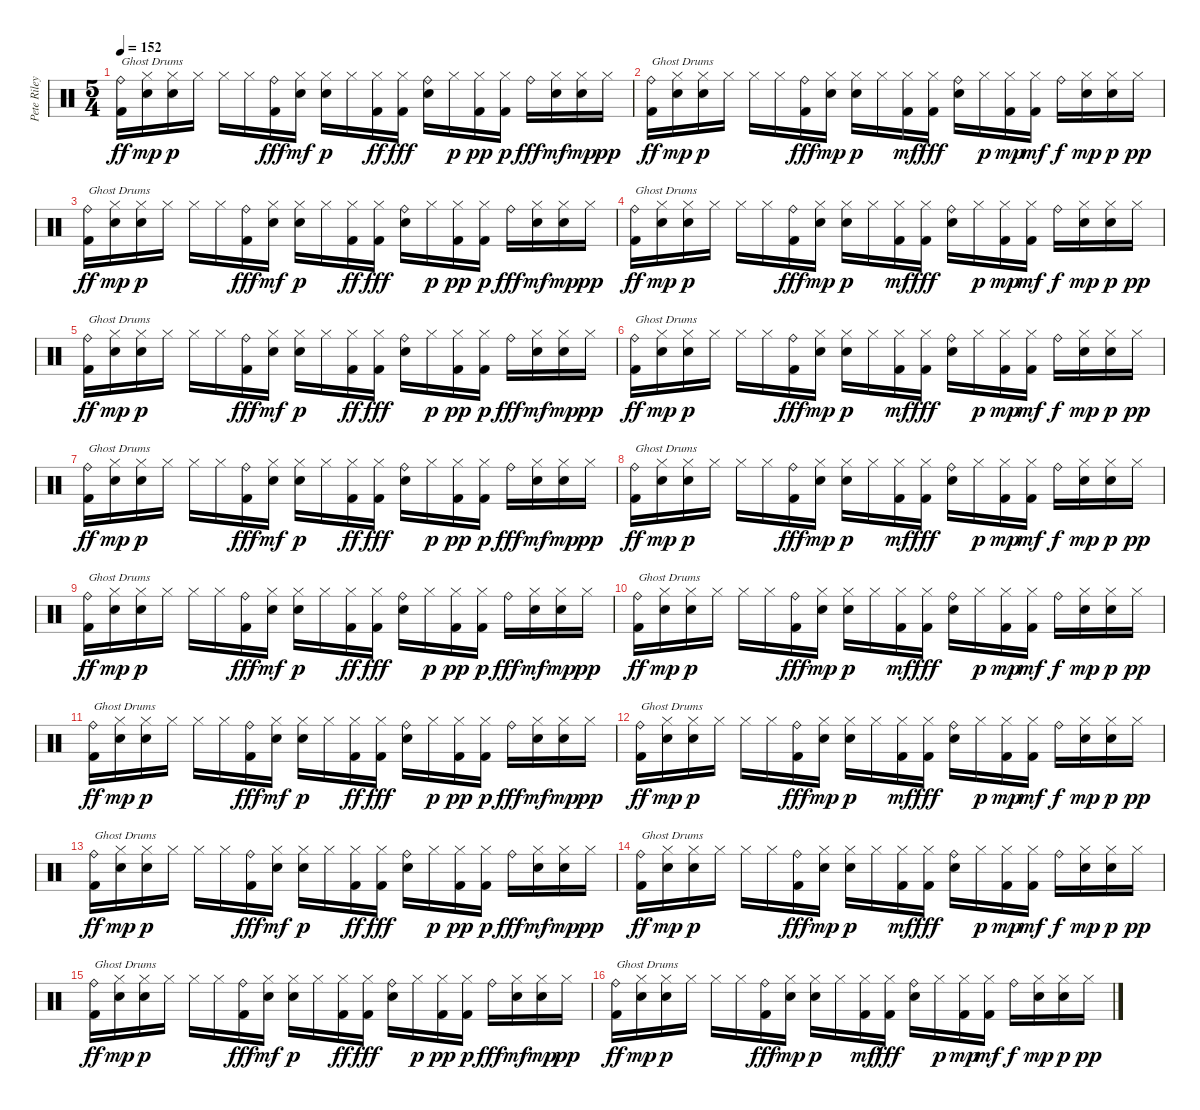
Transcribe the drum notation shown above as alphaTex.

\track ("Pete Riley" "Pete Riley") {instrument percussion}
\staff {score}
\articulation defaults
\ts (5 4)
\tempo 152
\clef neutral
\ks c
("Ride (bell)" "Kick (hit) 2").16{txt "Ghost Drums" dy ff} ("Hi-Hat (closed)" "Electric Snare (hit)").16{dy mp} ("Hi-Hat (closed)" "Electric Snare (hit)").16{dy p} "Hi-Hat (closed)".16 "Hi-Hat (closed)".16 "Hi-Hat (closed)".16 ("Ride (bell)" "Kick (hit) 2").16{dy fff} ("Hi-Hat (closed)" "Electric Snare (hit)").16{dy mf} ("Hi-Hat (closed)" "Electric Snare (hit)").16{dy p} "Hi-Hat (closed)".16 ("Hi-Hat (closed)" "Kick (hit) 2").16{dy ff} ("Hi-Hat (closed)" "Kick (hit) 2").16{dy fff} ("Ride (bell)" "Electric Snare (hit)").16 "Hi-Hat (closed)".16{dy p} ("Hi-Hat (closed)" "Kick (hit) 2").16{dy pp} ("Hi-Hat (closed)" "Kick (hit) 2").16{dy p} "Ride (bell)".16{dy fff} ("Hi-Hat (closed)" "Electric Snare (hit)").16{dy mf} ("Hi-Hat (closed)" "Electric Snare (hit)").16{dy mp} "Hi-Hat (closed)".16{dy pp} |
("Ride (bell)" "Kick (hit) 2").16{txt "Ghost Drums" dy ff} ("Hi-Hat (closed)" "Electric Snare (hit)").16{dy mp} ("Hi-Hat (closed)" "Electric Snare (hit)").16{dy p} "Hi-Hat (closed)".16 "Hi-Hat (closed)".16 "Hi-Hat (closed)".16 ("Ride (bell)" "Kick (hit) 2").16{dy fff} ("Hi-Hat (closed)" "Electric Snare (hit)").16{dy mp} ("Hi-Hat (closed)" "Electric Snare (hit)").16{dy p} "Hi-Hat (closed)".16 ("Hi-Hat (closed)" "Kick (hit) 2").16{dy mf} ("Hi-Hat (closed)" "Kick (hit) 2").16{dy fff} ("Ride (bell)" "Electric Snare (hit)").16 "Hi-Hat (closed)".16{dy p} ("Hi-Hat (closed)" "Kick (hit) 2").16{dy mp} ("Hi-Hat (closed)" "Kick (hit) 2").16{dy mf} "Ride (bell)".16{dy f} ("Hi-Hat (closed)" "Electric Snare (hit)").16{dy mp} ("Hi-Hat (closed)" "Electric Snare (hit)").16{dy p} "Hi-Hat (closed)".16{dy pp} |
("Ride (bell)" "Kick (hit) 2").16{txt "Ghost Drums" dy ff} ("Hi-Hat (closed)" "Electric Snare (hit)").16{dy mp} ("Hi-Hat (closed)" "Electric Snare (hit)").16{dy p} "Hi-Hat (closed)".16 "Hi-Hat (closed)".16 "Hi-Hat (closed)".16 ("Ride (bell)" "Kick (hit) 2").16{dy fff} ("Hi-Hat (closed)" "Electric Snare (hit)").16{dy mf} ("Hi-Hat (closed)" "Electric Snare (hit)").16{dy p} "Hi-Hat (closed)".16 ("Hi-Hat (closed)" "Kick (hit) 2").16{dy ff} ("Hi-Hat (closed)" "Kick (hit) 2").16{dy fff} ("Ride (bell)" "Electric Snare (hit)").16 "Hi-Hat (closed)".16{dy p} ("Hi-Hat (closed)" "Kick (hit) 2").16{dy pp} ("Hi-Hat (closed)" "Kick (hit) 2").16{dy p} "Ride (bell)".16{dy fff} ("Hi-Hat (closed)" "Electric Snare (hit)").16{dy mf} ("Hi-Hat (closed)" "Electric Snare (hit)").16{dy mp} "Hi-Hat (closed)".16{dy pp} |
("Ride (bell)" "Kick (hit) 2").16{txt "Ghost Drums" dy ff} ("Hi-Hat (closed)" "Electric Snare (hit)").16{dy mp} ("Hi-Hat (closed)" "Electric Snare (hit)").16{dy p} "Hi-Hat (closed)".16 "Hi-Hat (closed)".16 "Hi-Hat (closed)".16 ("Ride (bell)" "Kick (hit) 2").16{dy fff} ("Hi-Hat (closed)" "Electric Snare (hit)").16{dy mp} ("Hi-Hat (closed)" "Electric Snare (hit)").16{dy p} "Hi-Hat (closed)".16 ("Hi-Hat (closed)" "Kick (hit) 2").16{dy mf} ("Hi-Hat (closed)" "Kick (hit) 2").16{dy fff} ("Ride (bell)" "Electric Snare (hit)").16 "Hi-Hat (closed)".16{dy p} ("Hi-Hat (closed)" "Kick (hit) 2").16{dy mp} ("Hi-Hat (closed)" "Kick (hit) 2").16{dy mf} "Ride (bell)".16{dy f} ("Hi-Hat (closed)" "Electric Snare (hit)").16{dy mp} ("Hi-Hat (closed)" "Electric Snare (hit)").16{dy p} "Hi-Hat (closed)".16{dy pp} |
("Ride (bell)" "Kick (hit) 2").16{txt "Ghost Drums" dy ff} ("Hi-Hat (closed)" "Electric Snare (hit)").16{dy mp} ("Hi-Hat (closed)" "Electric Snare (hit)").16{dy p} "Hi-Hat (closed)".16 "Hi-Hat (closed)".16 "Hi-Hat (closed)".16 ("Ride (bell)" "Kick (hit) 2").16{dy fff} ("Hi-Hat (closed)" "Electric Snare (hit)").16{dy mf} ("Hi-Hat (closed)" "Electric Snare (hit)").16{dy p} "Hi-Hat (closed)".16 ("Hi-Hat (closed)" "Kick (hit) 2").16{dy ff} ("Hi-Hat (closed)" "Kick (hit) 2").16{dy fff} ("Ride (bell)" "Electric Snare (hit)").16 "Hi-Hat (closed)".16{dy p} ("Hi-Hat (closed)" "Kick (hit) 2").16{dy pp} ("Hi-Hat (closed)" "Kick (hit) 2").16{dy p} "Ride (bell)".16{dy fff} ("Hi-Hat (closed)" "Electric Snare (hit)").16{dy mf} ("Hi-Hat (closed)" "Electric Snare (hit)").16{dy mp} "Hi-Hat (closed)".16{dy pp} |
("Ride (bell)" "Kick (hit) 2").16{txt "Ghost Drums" dy ff} ("Hi-Hat (closed)" "Electric Snare (hit)").16{dy mp} ("Hi-Hat (closed)" "Electric Snare (hit)").16{dy p} "Hi-Hat (closed)".16 "Hi-Hat (closed)".16 "Hi-Hat (closed)".16 ("Ride (bell)" "Kick (hit) 2").16{dy fff} ("Hi-Hat (closed)" "Electric Snare (hit)").16{dy mp} ("Hi-Hat (closed)" "Electric Snare (hit)").16{dy p} "Hi-Hat (closed)".16 ("Hi-Hat (closed)" "Kick (hit) 2").16{dy mf} ("Hi-Hat (closed)" "Kick (hit) 2").16{dy fff} ("Ride (bell)" "Electric Snare (hit)").16 "Hi-Hat (closed)".16{dy p} ("Hi-Hat (closed)" "Kick (hit) 2").16{dy mp} ("Hi-Hat (closed)" "Kick (hit) 2").16{dy mf} "Ride (bell)".16{dy f} ("Hi-Hat (closed)" "Electric Snare (hit)").16{dy mp} ("Hi-Hat (closed)" "Electric Snare (hit)").16{dy p} "Hi-Hat (closed)".16{dy pp} |
("Ride (bell)" "Kick (hit) 2").16{txt "Ghost Drums" dy ff} ("Hi-Hat (closed)" "Electric Snare (hit)").16{dy mp} ("Hi-Hat (closed)" "Electric Snare (hit)").16{dy p} "Hi-Hat (closed)".16 "Hi-Hat (closed)".16 "Hi-Hat (closed)".16 ("Ride (bell)" "Kick (hit) 2").16{dy fff} ("Hi-Hat (closed)" "Electric Snare (hit)").16{dy mf} ("Hi-Hat (closed)" "Electric Snare (hit)").16{dy p} "Hi-Hat (closed)".16 ("Hi-Hat (closed)" "Kick (hit) 2").16{dy ff} ("Hi-Hat (closed)" "Kick (hit) 2").16{dy fff} ("Ride (bell)" "Electric Snare (hit)").16 "Hi-Hat (closed)".16{dy p} ("Hi-Hat (closed)" "Kick (hit) 2").16{dy pp} ("Hi-Hat (closed)" "Kick (hit) 2").16{dy p} "Ride (bell)".16{dy fff} ("Hi-Hat (closed)" "Electric Snare (hit)").16{dy mf} ("Hi-Hat (closed)" "Electric Snare (hit)").16{dy mp} "Hi-Hat (closed)".16{dy pp} |
("Ride (bell)" "Kick (hit) 2").16{txt "Ghost Drums" dy ff} ("Hi-Hat (closed)" "Electric Snare (hit)").16{dy mp} ("Hi-Hat (closed)" "Electric Snare (hit)").16{dy p} "Hi-Hat (closed)".16 "Hi-Hat (closed)".16 "Hi-Hat (closed)".16 ("Ride (bell)" "Kick (hit) 2").16{dy fff} ("Hi-Hat (closed)" "Electric Snare (hit)").16{dy mp} ("Hi-Hat (closed)" "Electric Snare (hit)").16{dy p} "Hi-Hat (closed)".16 ("Hi-Hat (closed)" "Kick (hit) 2").16{dy mf} ("Hi-Hat (closed)" "Kick (hit) 2").16{dy fff} ("Ride (bell)" "Electric Snare (hit)").16 "Hi-Hat (closed)".16{dy p} ("Hi-Hat (closed)" "Kick (hit) 2").16{dy mp} ("Hi-Hat (closed)" "Kick (hit) 2").16{dy mf} "Ride (bell)".16{dy f} ("Hi-Hat (closed)" "Electric Snare (hit)").16{dy mp} ("Hi-Hat (closed)" "Electric Snare (hit)").16{dy p} "Hi-Hat (closed)".16{dy pp} |
("Ride (bell)" "Kick (hit) 2").16{txt "Ghost Drums" dy ff} ("Hi-Hat (closed)" "Electric Snare (hit)").16{dy mp} ("Hi-Hat (closed)" "Electric Snare (hit)").16{dy p} "Hi-Hat (closed)".16 "Hi-Hat (closed)".16 "Hi-Hat (closed)".16 ("Ride (bell)" "Kick (hit) 2").16{dy fff} ("Hi-Hat (closed)" "Electric Snare (hit)").16{dy mf} ("Hi-Hat (closed)" "Electric Snare (hit)").16{dy p} "Hi-Hat (closed)".16 ("Hi-Hat (closed)" "Kick (hit) 2").16{dy ff} ("Hi-Hat (closed)" "Kick (hit) 2").16{dy fff} ("Ride (bell)" "Electric Snare (hit)").16 "Hi-Hat (closed)".16{dy p} ("Hi-Hat (closed)" "Kick (hit) 2").16{dy pp} ("Hi-Hat (closed)" "Kick (hit) 2").16{dy p} "Ride (bell)".16{dy fff} ("Hi-Hat (closed)" "Electric Snare (hit)").16{dy mf} ("Hi-Hat (closed)" "Electric Snare (hit)").16{dy mp} "Hi-Hat (closed)".16{dy pp} |
("Ride (bell)" "Kick (hit) 2").16{txt "Ghost Drums" dy ff} ("Hi-Hat (closed)" "Electric Snare (hit)").16{dy mp} ("Hi-Hat (closed)" "Electric Snare (hit)").16{dy p} "Hi-Hat (closed)".16 "Hi-Hat (closed)".16 "Hi-Hat (closed)".16 ("Ride (bell)" "Kick (hit) 2").16{dy fff} ("Hi-Hat (closed)" "Electric Snare (hit)").16{dy mp} ("Hi-Hat (closed)" "Electric Snare (hit)").16{dy p} "Hi-Hat (closed)".16 ("Hi-Hat (closed)" "Kick (hit) 2").16{dy mf} ("Hi-Hat (closed)" "Kick (hit) 2").16{dy fff} ("Ride (bell)" "Electric Snare (hit)").16 "Hi-Hat (closed)".16{dy p} ("Hi-Hat (closed)" "Kick (hit) 2").16{dy mp} ("Hi-Hat (closed)" "Kick (hit) 2").16{dy mf} "Ride (bell)".16{dy f} ("Hi-Hat (closed)" "Electric Snare (hit)").16{dy mp} ("Hi-Hat (closed)" "Electric Snare (hit)").16{dy p} "Hi-Hat (closed)".16{dy pp} |
("Ride (bell)" "Kick (hit) 2").16{txt "Ghost Drums" dy ff} ("Hi-Hat (closed)" "Electric Snare (hit)").16{dy mp} ("Hi-Hat (closed)" "Electric Snare (hit)").16{dy p} "Hi-Hat (closed)".16 "Hi-Hat (closed)".16 "Hi-Hat (closed)".16 ("Ride (bell)" "Kick (hit) 2").16{dy fff} ("Hi-Hat (closed)" "Electric Snare (hit)").16{dy mf} ("Hi-Hat (closed)" "Electric Snare (hit)").16{dy p} "Hi-Hat (closed)".16 ("Hi-Hat (closed)" "Kick (hit) 2").16{dy ff} ("Hi-Hat (closed)" "Kick (hit) 2").16{dy fff} ("Ride (bell)" "Electric Snare (hit)").16 "Hi-Hat (closed)".16{dy p} ("Hi-Hat (closed)" "Kick (hit) 2").16{dy pp} ("Hi-Hat (closed)" "Kick (hit) 2").16{dy p} "Ride (bell)".16{dy fff} ("Hi-Hat (closed)" "Electric Snare (hit)").16{dy mf} ("Hi-Hat (closed)" "Electric Snare (hit)").16{dy mp} "Hi-Hat (closed)".16{dy pp} |
("Ride (bell)" "Kick (hit) 2").16{txt "Ghost Drums" dy ff} ("Hi-Hat (closed)" "Electric Snare (hit)").16{dy mp} ("Hi-Hat (closed)" "Electric Snare (hit)").16{dy p} "Hi-Hat (closed)".16 "Hi-Hat (closed)".16 "Hi-Hat (closed)".16 ("Ride (bell)" "Kick (hit) 2").16{dy fff} ("Hi-Hat (closed)" "Electric Snare (hit)").16{dy mp} ("Hi-Hat (closed)" "Electric Snare (hit)").16{dy p} "Hi-Hat (closed)".16 ("Hi-Hat (closed)" "Kick (hit) 2").16{dy mf} ("Hi-Hat (closed)" "Kick (hit) 2").16{dy fff} ("Ride (bell)" "Electric Snare (hit)").16 "Hi-Hat (closed)".16{dy p} ("Hi-Hat (closed)" "Kick (hit) 2").16{dy mp} ("Hi-Hat (closed)" "Kick (hit) 2").16{dy mf} "Ride (bell)".16{dy f} ("Hi-Hat (closed)" "Electric Snare (hit)").16{dy mp} ("Hi-Hat (closed)" "Electric Snare (hit)").16{dy p} "Hi-Hat (closed)".16{dy pp} |
("Ride (bell)" "Kick (hit) 2").16{txt "Ghost Drums" dy ff} ("Hi-Hat (closed)" "Electric Snare (hit)").16{dy mp} ("Hi-Hat (closed)" "Electric Snare (hit)").16{dy p} "Hi-Hat (closed)".16 "Hi-Hat (closed)".16 "Hi-Hat (closed)".16 ("Ride (bell)" "Kick (hit) 2").16{dy fff} ("Hi-Hat (closed)" "Electric Snare (hit)").16{dy mf} ("Hi-Hat (closed)" "Electric Snare (hit)").16{dy p} "Hi-Hat (closed)".16 ("Hi-Hat (closed)" "Kick (hit) 2").16{dy ff} ("Hi-Hat (closed)" "Kick (hit) 2").16{dy fff} ("Ride (bell)" "Electric Snare (hit)").16 "Hi-Hat (closed)".16{dy p} ("Hi-Hat (closed)" "Kick (hit) 2").16{dy pp} ("Hi-Hat (closed)" "Kick (hit) 2").16{dy p} "Ride (bell)".16{dy fff} ("Hi-Hat (closed)" "Electric Snare (hit)").16{dy mf} ("Hi-Hat (closed)" "Electric Snare (hit)").16{dy mp} "Hi-Hat (closed)".16{dy pp} |
("Ride (bell)" "Kick (hit) 2").16{txt "Ghost Drums" dy ff} ("Hi-Hat (closed)" "Electric Snare (hit)").16{dy mp} ("Hi-Hat (closed)" "Electric Snare (hit)").16{dy p} "Hi-Hat (closed)".16 "Hi-Hat (closed)".16 "Hi-Hat (closed)".16 ("Ride (bell)" "Kick (hit) 2").16{dy fff} ("Hi-Hat (closed)" "Electric Snare (hit)").16{dy mp} ("Hi-Hat (closed)" "Electric Snare (hit)").16{dy p} "Hi-Hat (closed)".16 ("Hi-Hat (closed)" "Kick (hit) 2").16{dy mf} ("Hi-Hat (closed)" "Kick (hit) 2").16{dy fff} ("Ride (bell)" "Electric Snare (hit)").16 "Hi-Hat (closed)".16{dy p} ("Hi-Hat (closed)" "Kick (hit) 2").16{dy mp} ("Hi-Hat (closed)" "Kick (hit) 2").16{dy mf} "Ride (bell)".16{dy f} ("Hi-Hat (closed)" "Electric Snare (hit)").16{dy mp} ("Hi-Hat (closed)" "Electric Snare (hit)").16{dy p} "Hi-Hat (closed)".16{dy pp} |
("Ride (bell)" "Kick (hit) 2").16{txt "Ghost Drums" dy ff} ("Hi-Hat (closed)" "Electric Snare (hit)").16{dy mp} ("Hi-Hat (closed)" "Electric Snare (hit)").16{dy p} "Hi-Hat (closed)".16 "Hi-Hat (closed)".16 "Hi-Hat (closed)".16 ("Ride (bell)" "Kick (hit) 2").16{dy fff} ("Hi-Hat (closed)" "Electric Snare (hit)").16{dy mf} ("Hi-Hat (closed)" "Electric Snare (hit)").16{dy p} "Hi-Hat (closed)".16 ("Hi-Hat (closed)" "Kick (hit) 2").16{dy ff} ("Hi-Hat (closed)" "Kick (hit) 2").16{dy fff} ("Ride (bell)" "Electric Snare (hit)").16 "Hi-Hat (closed)".16{dy p} ("Hi-Hat (closed)" "Kick (hit) 2").16{dy pp} ("Hi-Hat (closed)" "Kick (hit) 2").16{dy p} "Ride (bell)".16{dy fff} ("Hi-Hat (closed)" "Electric Snare (hit)").16{dy mf} ("Hi-Hat (closed)" "Electric Snare (hit)").16{dy mp} "Hi-Hat (closed)".16{dy pp} |
("Ride (bell)" "Kick (hit) 2").16{txt "Ghost Drums" dy ff} ("Hi-Hat (closed)" "Electric Snare (hit)").16{dy mp} ("Hi-Hat (closed)" "Electric Snare (hit)").16{dy p} "Hi-Hat (closed)".16 "Hi-Hat (closed)".16 "Hi-Hat (closed)".16 ("Ride (bell)" "Kick (hit) 2").16{dy fff} ("Hi-Hat (closed)" "Electric Snare (hit)").16{dy mp} ("Hi-Hat (closed)" "Electric Snare (hit)").16{dy p} "Hi-Hat (closed)".16 ("Hi-Hat (closed)" "Kick (hit) 2").16{dy mf} ("Hi-Hat (closed)" "Kick (hit) 2").16{dy fff} ("Ride (bell)" "Electric Snare (hit)").16 "Hi-Hat (closed)".16{dy p} ("Hi-Hat (closed)" "Kick (hit) 2").16{dy mp} ("Hi-Hat (closed)" "Kick (hit) 2").16{dy mf} "Ride (bell)".16{dy f} ("Hi-Hat (closed)" "Electric Snare (hit)").16{dy mp} ("Hi-Hat (closed)" "Electric Snare (hit)").16{dy p} "Hi-Hat (closed)".16{dy pp}
